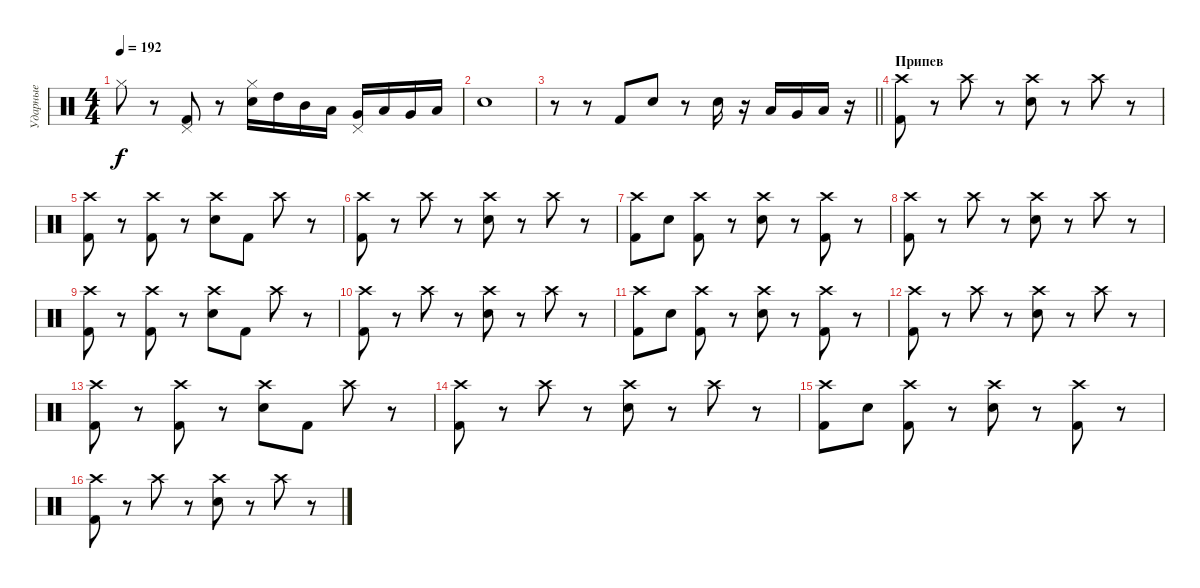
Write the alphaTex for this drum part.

\track ("Ударные" "Ударные") {instrument percussion}
\staff {score}
\articulation defaults
\ts (4 4)
\tempo 192
\clef neutral
\ks c "Hi-Hat (closed)".8{dy f}
r.8 ("Kick (hit) 2" "Pedal Hi-Hat (hit)").8 r.8 ("Snare (hit) 2" "Hi-Hat (closed)").16 "High Tom (hit)".16 "Mid Tom (hit)".16 "Low Tom (hit)".16 ("Pedal Hi-Hat (hit)" "Very Low Tom (hit)").16 "Low Floor Tom (hit)".16 "Very Low Tom (hit)".16 "Low Floor Tom (hit)".16 |
"Snare (hit) 2".1 |
\barLineRight lightlight
r.8 r.8 "Kick (hit) 2".8 "Snare (hit) 2".8 r.8 "Snare (hit) 2".16 r.16 "Low Tom (hit)".16 "Very Low Tom (hit)".16 "Low Floor Tom (hit)".16 r.16 |
\section ("" "Припев")
("Kick (hit) 2" "Crash high (hit)").8 r.8 "Crash high (hit)".8 r.8 ("Snare (hit) 2" "Crash high (hit)").8 r.8 "Crash high (hit)".8 r.8 |
("Kick (hit) 2" "Crash high (hit)").8 r.8 ("Kick (hit) 2" "Crash high (hit)").8 r.8 ("Snare (hit) 2" "Crash high (hit)").8 "Kick (hit) 2".8 "Crash high (hit)".8 r.8 |
("Kick (hit) 2" "Crash high (hit)").8 r.8 "Crash high (hit)".8 r.8 ("Snare (hit) 2" "Crash high (hit)").8 r.8 "Crash high (hit)".8 r.8 |
("Kick (hit) 2" "Crash high (hit)").8 "Snare (hit) 2".8 ("Kick (hit) 2" "Crash high (hit)").8 r.8 ("Snare (hit) 2" "Crash high (hit)").8 r.8 ("Crash high (hit)" "Kick (hit) 2").8 r.8 |
("Kick (hit) 2" "Crash high (hit)").8 r.8 "Crash high (hit)".8 r.8 ("Snare (hit) 2" "Crash high (hit)").8 r.8 "Crash high (hit)".8 r.8 |
("Kick (hit) 2" "Crash high (hit)").8 r.8 ("Kick (hit) 2" "Crash high (hit)").8 r.8 ("Snare (hit) 2" "Crash high (hit)").8 "Kick (hit) 2".8 "Crash high (hit)".8 r.8 |
("Kick (hit) 2" "Crash high (hit)").8 r.8 "Crash high (hit)".8 r.8 ("Snare (hit) 2" "Crash high (hit)").8 r.8 "Crash high (hit)".8 r.8 |
("Kick (hit) 2" "Crash high (hit)").8 "Snare (hit) 2".8 ("Kick (hit) 2" "Crash high (hit)").8 r.8 ("Snare (hit) 2" "Crash high (hit)").8 r.8 ("Crash high (hit)" "Kick (hit) 2").8 r.8 |
("Kick (hit) 2" "Crash high (hit)").8 r.8 "Crash high (hit)".8 r.8 ("Snare (hit) 2" "Crash high (hit)").8 r.8 "Crash high (hit)".8 r.8 |
("Kick (hit) 2" "Crash high (hit)").8 r.8 ("Kick (hit) 2" "Crash high (hit)").8 r.8 ("Snare (hit) 2" "Crash high (hit)").8 "Kick (hit) 2".8 "Crash high (hit)".8 r.8 |
("Kick (hit) 2" "Crash high (hit)").8 r.8 "Crash high (hit)".8 r.8 ("Snare (hit) 2" "Crash high (hit)").8 r.8 "Crash high (hit)".8 r.8 |
("Kick (hit) 2" "Crash high (hit)").8 "Snare (hit) 2".8 ("Kick (hit) 2" "Crash high (hit)").8 r.8 ("Snare (hit) 2" "Crash high (hit)").8 r.8 ("Crash high (hit)" "Kick (hit) 2").8 r.8 |
("Kick (hit) 2" "Crash high (hit)").8 r.8 "Crash high (hit)".8 r.8 ("Snare (hit) 2" "Crash high (hit)").8 r.8 "Crash high (hit)".8 r.8
